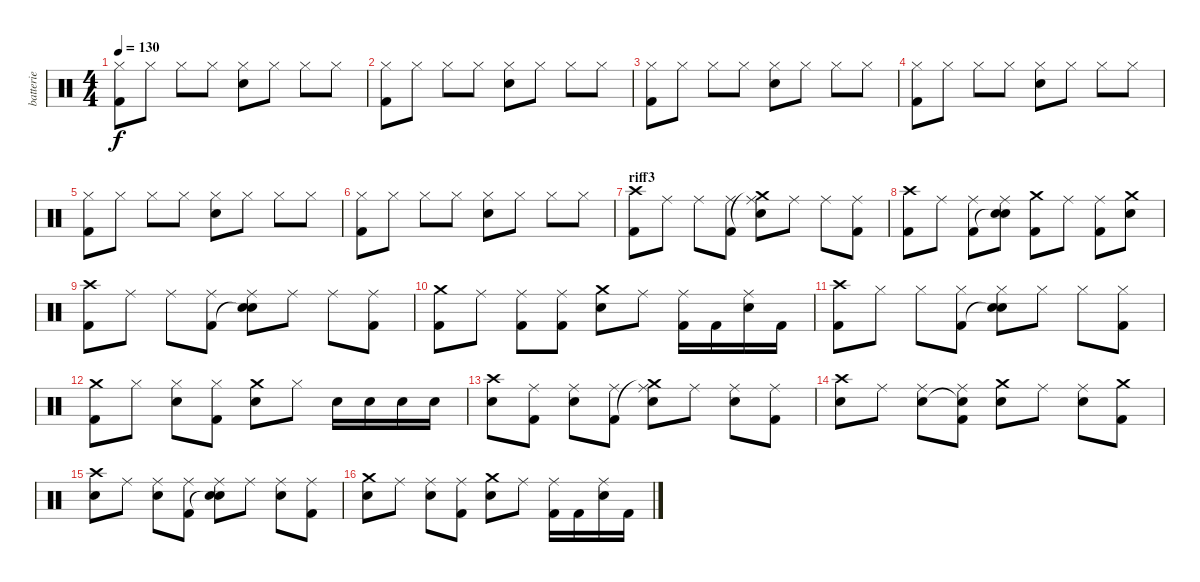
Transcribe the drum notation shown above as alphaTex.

\track ("batterie" "batterie") {instrument percussion}
\staff {score}
\articulation defaults
\ts (4 4)
\tempo 130
\clef neutral
\ks c
("Kick (hit) 2" "Hi-Hat (closed)").8{dy f} "Hi-Hat (closed)".8 "Hi-Hat (closed)".8 "Hi-Hat (closed)".8 ("Snare (hit) 2" "Hi-Hat (closed)").8 "Hi-Hat (closed)".8 "Hi-Hat (closed)".8 "Hi-Hat (closed)".8 |
("Kick (hit) 2" "Hi-Hat (closed)").8 "Hi-Hat (closed)".8 "Hi-Hat (closed)".8 "Hi-Hat (closed)".8 ("Snare (hit) 2" "Hi-Hat (closed)").8 "Hi-Hat (closed)".8 "Hi-Hat (closed)".8 "Hi-Hat (closed)".8 |
("Kick (hit) 2" "Hi-Hat (closed)").8 "Hi-Hat (closed)".8 "Hi-Hat (closed)".8 "Hi-Hat (closed)".8 ("Snare (hit) 2" "Hi-Hat (closed)").8 "Hi-Hat (closed)".8 "Hi-Hat (closed)".8 "Hi-Hat (closed)".8 |
("Kick (hit) 2" "Hi-Hat (closed)").8 "Hi-Hat (closed)".8 "Hi-Hat (closed)".8 "Hi-Hat (closed)".8 ("Snare (hit) 2" "Hi-Hat (closed)").8 "Hi-Hat (closed)".8 "Hi-Hat (closed)".8 "Hi-Hat (closed)".8 |
("Kick (hit) 2" "Hi-Hat (closed)").8 "Hi-Hat (closed)".8 "Hi-Hat (closed)".8 "Hi-Hat (closed)".8 ("Snare (hit) 2" "Hi-Hat (closed)").8 "Hi-Hat (closed)".8 "Hi-Hat (closed)".8 "Hi-Hat (closed)".8 |
("Kick (hit) 2" "Hi-Hat (closed)").8 "Hi-Hat (closed)".8 "Hi-Hat (closed)".8 "Hi-Hat (closed)".8 ("Snare (hit) 2" "Hi-Hat (closed)").8 "Hi-Hat (closed)".8 "Hi-Hat (closed)".8 "Hi-Hat (closed)".8 |
\section ("" "riff3")
("Crash high (hit)" "Kick (hit) 2").8 "Ride (middle)".8 "Ride (middle)".8 ("Kick (hit) 2" "Ride (middle)").8 ("Crash medium (hit)"{t} "Snare (hit) 2" "Ride (middle)").8 "Ride (middle)".8 "Ride (middle)".8 ("Kick (hit) 2" "Ride (middle)").8 |
("Crash high (hit)" "Kick (hit) 2").8 "Ride (middle)".8 ("Kick (hit) 2" "Ride (middle)").8 ("Snare (hit)"{t} "Snare (hit) 2" "Ride (middle)").8 ("Crash medium (hit)" "Kick (hit) 2").8 "Ride (middle)".8 ("Kick (hit) 2" "Ride (middle)").8 ("Crash medium (hit)" "Snare (hit) 2").8 |
("Crash high (hit)" "Kick (hit) 2").8 "Ride (middle)".8 "Ride (middle)".8 ("Kick (hit) 2" "Ride (middle)").8 ("Snare (hit)"{t} "Snare (hit) 2" "Ride (middle)").8 "Ride (middle)".8 "Ride (middle)".8 ("Kick (hit) 2" "Ride (middle)").8 |
("Crash medium (hit)" "Kick (hit) 2").8 "Ride (middle)".8 ("Kick (hit) 2" "Ride (middle)").8 ("Kick (hit) 2" "Ride (middle)").8 ("Crash medium (hit)" "Snare (hit) 2").8 "Ride (middle)".8 ("Kick (hit) 2" "Ride (middle)").16 "Kick (hit) 2".16 ("Snare (hit) 2" "Ride (middle)").16 "Kick (hit) 2".16 |
("Crash high (hit)" "Kick (hit) 2").8 "Hi-Hat (closed)".8 "Hi-Hat (closed)".8 ("Kick (hit) 2" "Hi-Hat (closed)").8 ("Snare (hit)"{t} "Snare (hit) 2" "Hi-Hat (closed)").8 "Hi-Hat (closed)".8 "Hi-Hat (closed)".8 ("Kick (hit) 2" "Hi-Hat (closed)").8 |
("Crash medium (hit)" "Kick (hit) 2").8 "Hi-Hat (closed)".8 ("Snare (hit) 2" "Hi-Hat (closed)").8 ("Kick (hit) 2" "Hi-Hat (closed)").8 ("Crash medium (hit)" "Snare (hit) 2").8 "Hi-Hat (closed)".8 "Snare (hit) 2".16 "Snare (hit) 2".16 "Snare (hit) 2".16 "Snare (hit) 2".16 |
("Crash high (hit)" "Snare (hit) 2").8 ("Kick (hit) 2" "Ride (middle)").8 ("Snare (hit) 2" "Ride (middle)").8 ("Kick (hit) 2" "Ride (middle)").8 ("Crash medium (hit)"{t} "Snare (hit) 2" "Ride (middle)").8 "Ride (middle)".8 ("Snare (hit) 2" "Ride (middle)").8 ("Kick (hit) 2" "Ride (middle)").8 |
("Crash high (hit)" "Snare (hit) 2").8 "Ride (middle)".8 ("Snare (hit) 2" "Ride (middle)").8 ("Snare (hit)"{t} "Kick (hit) 2" "Ride (middle)").8 ("Crash medium (hit)" "Snare (hit) 2").8 "Ride (middle)".8 ("Snare (hit) 2" "Ride (middle)").8 ("Crash medium (hit)" "Kick (hit) 2").8 |
("Crash high (hit)" "Snare (hit) 2").8 "Ride (middle)".8 ("Snare (hit) 2" "Ride (middle)").8 ("Kick (hit) 2" "Ride (middle)").8 ("Snare (hit)"{t} "Snare (hit) 2" "Ride (middle)").8 "Ride (middle)".8 ("Snare (hit) 2" "Ride (middle)").8 ("Kick (hit) 2" "Ride (middle)").8 |
("Crash medium (hit)" "Snare (hit) 2").8 "Ride (middle)".8 ("Snare (hit) 2" "Ride (middle)").8 ("Kick (hit) 2" "Ride (middle)").8 ("Crash medium (hit)" "Snare (hit) 2").8 "Ride (middle)".8 ("Kick (hit) 2" "Ride (middle)").16 "Kick (hit) 2".16 ("Snare (hit) 2" "Ride (middle)").16 "Kick (hit) 2".16
